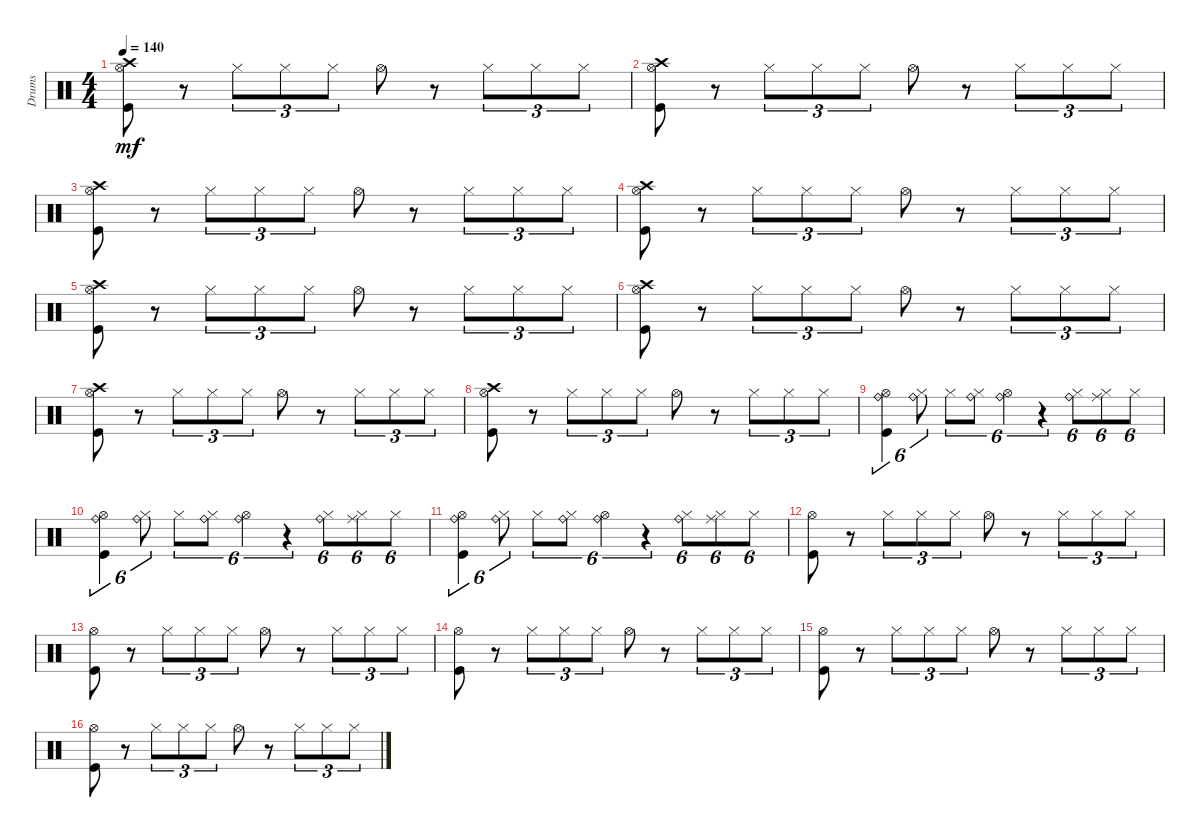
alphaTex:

\track ("Drums" "Drums") {instrument percussion}
\staff {score}
\articulation defaults
\ts (4 4)
\tempo 140
\clef neutral
\ks c
("Kick (hit)" "Hi-Hat (open)" "Crash high (hit)").8{dy mf} r.8 "Hi-Hat (closed)".8{tu (3 2)} "Hi-Hat (closed)".8{tu (3 2)} "Hi-Hat (closed)".8{tu (3 2)} "Hi-Hat (open)".8 r.8 "Hi-Hat (closed)".8{tu (3 2)} "Hi-Hat (closed)".8{tu (3 2)} "Hi-Hat (closed)".8{tu (3 2)} |
("Kick (hit)" "Hi-Hat (open)" "Crash high (hit)").8 r.8 "Hi-Hat (closed)".8{tu (3 2)} "Hi-Hat (closed)".8{tu (3 2)} "Hi-Hat (closed)".8{tu (3 2)} "Hi-Hat (open)".8 r.8 "Hi-Hat (closed)".8{tu (3 2)} "Hi-Hat (closed)".8{tu (3 2)} "Hi-Hat (closed)".8{tu (3 2)} |
("Kick (hit)" "Hi-Hat (open)" "Crash high (hit)").8 r.8 "Hi-Hat (closed)".8{tu (3 2)} "Hi-Hat (closed)".8{tu (3 2)} "Hi-Hat (closed)".8{tu (3 2)} "Hi-Hat (open)".8 r.8 "Hi-Hat (closed)".8{tu (3 2)} "Hi-Hat (closed)".8{tu (3 2)} "Hi-Hat (closed)".8{tu (3 2)} |
("Kick (hit)" "Hi-Hat (open)" "Crash high (hit)").8 r.8 "Hi-Hat (closed)".8{tu (3 2)} "Hi-Hat (closed)".8{tu (3 2)} "Hi-Hat (closed)".8{tu (3 2)} "Hi-Hat (open)".8 r.8 "Hi-Hat (closed)".8{tu (3 2)} "Hi-Hat (closed)".8{tu (3 2)} "Hi-Hat (closed)".8{tu (3 2)} |
("Kick (hit)" "Hi-Hat (open)" "Crash high (hit)").8 r.8 "Hi-Hat (closed)".8{tu (3 2)} "Hi-Hat (closed)".8{tu (3 2)} "Hi-Hat (closed)".8{tu (3 2)} "Hi-Hat (open)".8 r.8 "Hi-Hat (closed)".8{tu (3 2)} "Hi-Hat (closed)".8{tu (3 2)} "Hi-Hat (closed)".8{tu (3 2)} |
("Kick (hit)" "Hi-Hat (open)" "Crash high (hit)").8 r.8 "Hi-Hat (closed)".8{tu (3 2)} "Hi-Hat (closed)".8{tu (3 2)} "Hi-Hat (closed)".8{tu (3 2)} "Hi-Hat (open)".8 r.8 "Hi-Hat (closed)".8{tu (3 2)} "Hi-Hat (closed)".8{tu (3 2)} "Hi-Hat (closed)".8{tu (3 2)} |
("Kick (hit)" "Hi-Hat (open)" "Crash high (hit)").8 r.8 "Hi-Hat (closed)".8{tu (3 2)} "Hi-Hat (closed)".8{tu (3 2)} "Hi-Hat (closed)".8{tu (3 2)} "Hi-Hat (open)".8 r.8 "Hi-Hat (closed)".8{tu (3 2)} "Hi-Hat (closed)".8{tu (3 2)} "Hi-Hat (closed)".8{tu (3 2)} |
("Kick (hit)" "Hi-Hat (open)" "Crash high (hit)").8 r.8 "Hi-Hat (closed)".8{tu (3 2)} "Hi-Hat (closed)".8{tu (3 2)} "Hi-Hat (closed)".8{tu (3 2)} "Hi-Hat (open)".8 r.8 "Hi-Hat (closed)".8{tu (3 2)} "Hi-Hat (closed)".8{tu (3 2)} "Hi-Hat (closed)".8{tu (3 2)} |
("Kick (hit)" "Hi-Hat (open)" "Ride (bell)").4{tu (6 4)} ("Hi-Hat (closed)" "Ride (bell)").8{tu (6 4)} "Hi-Hat (closed)".8{tu (6 4)} ("Hi-Hat (closed)" "Ride (bell)").8{tu (6 4)} ("Hi-Hat (open)" "Ride (bell)").4{tu (6 4)} r.4{tu (6 4)} ("Hi-Hat (closed)" "Ride (bell)").8{tu (6 4)} ("Hi-Hat (closed)" "Ride (middle)").8{tu (6 4)} "Hi-Hat (closed)".8{tu (6 4)} |
("Kick (hit)" "Hi-Hat (open)" "Ride (bell)").4{tu (6 4)} ("Hi-Hat (closed)" "Ride (bell)").8{tu (6 4)} "Hi-Hat (closed)".8{tu (6 4)} ("Hi-Hat (closed)" "Ride (bell)").8{tu (6 4)} ("Hi-Hat (open)" "Ride (bell)").4{tu (6 4)} r.4{tu (6 4)} ("Hi-Hat (closed)" "Ride (bell)").8{tu (6 4)} ("Hi-Hat (closed)" "Ride (middle)").8{tu (6 4)} "Hi-Hat (closed)".8{tu (6 4)} |
("Kick (hit)" "Hi-Hat (open)" "Ride (bell)").4{tu (6 4)} ("Hi-Hat (closed)" "Ride (bell)").8{tu (6 4)} "Hi-Hat (closed)".8{tu (6 4)} ("Hi-Hat (closed)" "Ride (bell)").8{tu (6 4)} ("Hi-Hat (open)" "Ride (bell)").4{tu (6 4)} r.4{tu (6 4)} ("Hi-Hat (closed)" "Ride (bell)").8{tu (6 4)} ("Hi-Hat (closed)" "Ride (middle)").8{tu (6 4)} "Hi-Hat (closed)".8{tu (6 4)} |
("Kick (hit)" "Hi-Hat (open)").8 r.8 "Hi-Hat (closed)".8{tu (3 2)} "Hi-Hat (closed)".8{tu (3 2)} "Hi-Hat (closed)".8{tu (3 2)} "Hi-Hat (open)".8 r.8 "Hi-Hat (closed)".8{tu (3 2)} "Hi-Hat (closed)".8{tu (3 2)} "Hi-Hat (closed)".8{tu (3 2)} |
("Kick (hit)" "Hi-Hat (open)").8 r.8 "Hi-Hat (closed)".8{tu (3 2)} "Hi-Hat (closed)".8{tu (3 2)} "Hi-Hat (closed)".8{tu (3 2)} "Hi-Hat (open)".8 r.8 "Hi-Hat (closed)".8{tu (3 2)} "Hi-Hat (closed)".8{tu (3 2)} "Hi-Hat (closed)".8{tu (3 2)} |
("Kick (hit)" "Hi-Hat (open)").8 r.8 "Hi-Hat (closed)".8{tu (3 2)} "Hi-Hat (closed)".8{tu (3 2)} "Hi-Hat (closed)".8{tu (3 2)} "Hi-Hat (open)".8 r.8 "Hi-Hat (closed)".8{tu (3 2)} "Hi-Hat (closed)".8{tu (3 2)} "Hi-Hat (closed)".8{tu (3 2)} |
("Kick (hit)" "Hi-Hat (open)").8 r.8 "Hi-Hat (closed)".8{tu (3 2)} "Hi-Hat (closed)".8{tu (3 2)} "Hi-Hat (closed)".8{tu (3 2)} "Hi-Hat (open)".8 r.8 "Hi-Hat (closed)".8{tu (3 2)} "Hi-Hat (closed)".8{tu (3 2)} "Hi-Hat (closed)".8{tu (3 2)} |
("Kick (hit)" "Hi-Hat (open)").8 r.8 "Hi-Hat (closed)".8{tu (3 2)} "Hi-Hat (closed)".8{tu (3 2)} "Hi-Hat (closed)".8{tu (3 2)} "Hi-Hat (open)".8 r.8 "Hi-Hat (closed)".8{tu (3 2)} "Hi-Hat (closed)".8{tu (3 2)} "Hi-Hat (closed)".8{tu (3 2)}
